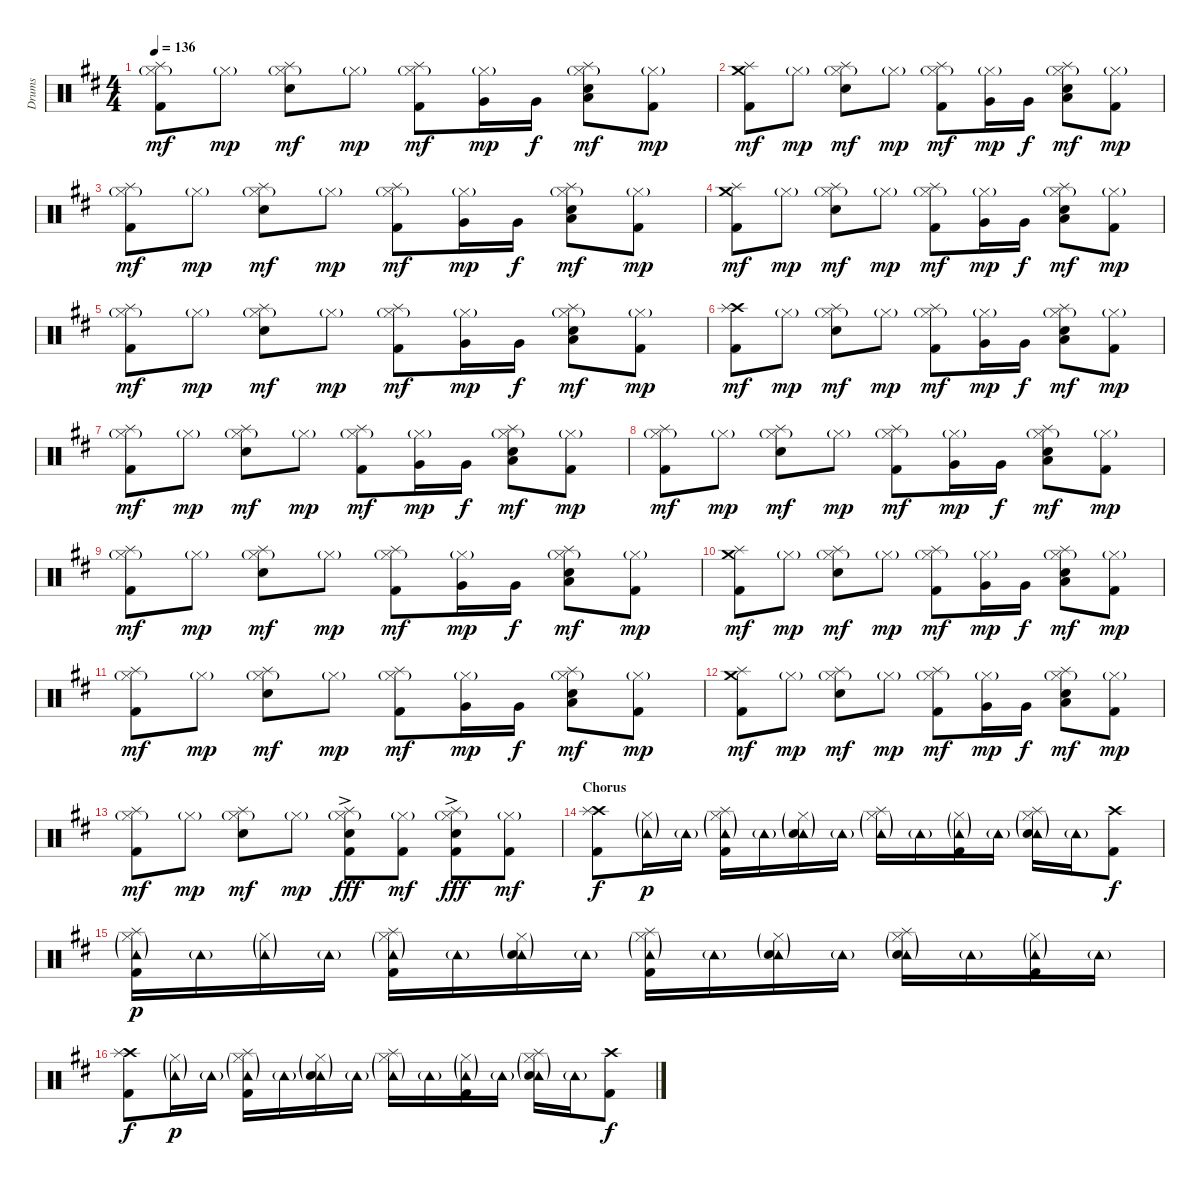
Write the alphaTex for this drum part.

\track ("Drums" "Drums") {instrument percussion}
\staff {score}
\articulation defaults
\ts (4 4)
\tempo 136
\clef neutral
\ks d
("Hi-Hat (closed)"{g} "Splash (hit)" "Kick (hit) 2").8{dy mf} "Hi-Hat (closed)"{g}.8{dy mp} ("Hi-Hat (closed)"{g} "Splash (hit)" "Snare (hit) 2").8{dy mf} "Hi-Hat (closed)"{g}.8{dy mp} ("Hi-Hat (closed)"{g} "Splash (hit)" "Kick (hit) 2").8{dy mf} ("Hi-Hat (closed)"{g} "Very Low Tom (hit)").16{dy mp} "Very Low Tom (hit)".16{dy f} ("Hi-Hat (closed)"{g} "Splash (hit)" "Low Floor Tom (hit)" "Snare (hit) 2").8{dy mf} ("Hi-Hat (closed)"{g} "Kick (hit) 2").8{dy mp} |
("Crash medium (hit)" "Splash (hit)" "Kick (hit) 2").8{dy mf} "Hi-Hat (closed)"{g}.8{dy mp} ("Hi-Hat (closed)"{g} "Splash (hit)" "Snare (hit) 2").8{dy mf} "Hi-Hat (closed)"{g}.8{dy mp} ("Hi-Hat (closed)"{g} "Splash (hit)" "Kick (hit) 2").8{dy mf} ("Hi-Hat (closed)"{g} "Very Low Tom (hit)").16{dy mp} "Very Low Tom (hit)".16{dy f} ("Hi-Hat (closed)"{g} "Splash (hit)" "Low Floor Tom (hit)" "Snare (hit) 2").8{dy mf} ("Hi-Hat (closed)"{g} "Kick (hit) 2").8{dy mp} |
("Hi-Hat (closed)"{g} "Splash (hit)" "Kick (hit) 2").8{dy mf} "Hi-Hat (closed)"{g}.8{dy mp} ("Hi-Hat (closed)"{g} "Splash (hit)" "Snare (hit) 2").8{dy mf} "Hi-Hat (closed)"{g}.8{dy mp} ("Hi-Hat (closed)"{g} "Splash (hit)" "Kick (hit) 2").8{dy mf} ("Hi-Hat (closed)"{g} "Very Low Tom (hit)").16{dy mp} "Very Low Tom (hit)".16{dy f} ("Hi-Hat (closed)"{g} "Splash (hit)" "Low Floor Tom (hit)" "Snare (hit) 2").8{dy mf} ("Hi-Hat (closed)"{g} "Kick (hit) 2").8{dy mp} |
("Crash medium (hit)" "Splash (hit)" "Kick (hit) 2").8{dy mf} "Hi-Hat (closed)"{g}.8{dy mp} ("Hi-Hat (closed)"{g} "Splash (hit)" "Snare (hit) 2").8{dy mf} "Hi-Hat (closed)"{g}.8{dy mp} ("Hi-Hat (closed)"{g} "Splash (hit)" "Kick (hit) 2").8{dy mf} ("Hi-Hat (closed)"{g} "Very Low Tom (hit)").16{dy mp} "Very Low Tom (hit)".16{dy f} ("Hi-Hat (closed)"{g} "Splash (hit)" "Low Floor Tom (hit)" "Snare (hit) 2").8{dy mf} ("Hi-Hat (closed)"{g} "Kick (hit) 2").8{dy mp} |
("Hi-Hat (closed)"{g} "Splash (hit)" "Kick (hit) 2").8{dy mf} "Hi-Hat (closed)"{g}.8{dy mp} ("Hi-Hat (closed)"{g} "Splash (hit)" "Snare (hit) 2").8{dy mf} "Hi-Hat (closed)"{g}.8{dy mp} ("Hi-Hat (closed)"{g} "Splash (hit)" "Kick (hit) 2").8{dy mf} ("Hi-Hat (closed)"{g} "Very Low Tom (hit)").16{dy mp} "Very Low Tom (hit)".16{dy f} ("Hi-Hat (closed)"{g} "Splash (hit)" "Low Floor Tom (hit)" "Snare (hit) 2").8{dy mf} ("Hi-Hat (closed)"{g} "Kick (hit) 2").8{dy mp} |
("Crash high (hit)" "Splash (hit)" "Kick (hit) 2").8{dy mf} "Hi-Hat (closed)"{g}.8{dy mp} ("Hi-Hat (closed)"{g} "Splash (hit)" "Snare (hit) 2").8{dy mf} "Hi-Hat (closed)"{g}.8{dy mp} ("Hi-Hat (closed)"{g} "Splash (hit)" "Kick (hit) 2").8{dy mf} ("Hi-Hat (closed)"{g} "Very Low Tom (hit)").16{dy mp} "Very Low Tom (hit)".16{dy f} ("Hi-Hat (closed)"{g} "Splash (hit)" "Low Floor Tom (hit)" "Snare (hit) 2").8{dy mf} ("Hi-Hat (closed)"{g} "Kick (hit) 2").8{dy mp} |
("Hi-Hat (closed)"{g} "Splash (hit)" "Kick (hit) 2").8{dy mf} "Hi-Hat (closed)"{g}.8{dy mp} ("Hi-Hat (closed)"{g} "Splash (hit)" "Snare (hit) 2").8{dy mf} "Hi-Hat (closed)"{g}.8{dy mp} ("Hi-Hat (closed)"{g} "Splash (hit)" "Kick (hit) 2").8{dy mf} ("Hi-Hat (closed)"{g} "Very Low Tom (hit)").16{dy mp} "Very Low Tom (hit)".16{dy f} ("Hi-Hat (closed)"{g} "Splash (hit)" "Low Floor Tom (hit)" "Snare (hit) 2").8{dy mf} ("Hi-Hat (closed)"{g} "Kick (hit) 2").8{dy mp} |
("Hi-Hat (closed)"{g} "Splash (hit)" "Kick (hit) 2").8{dy mf} "Hi-Hat (closed)"{g}.8{dy mp} ("Hi-Hat (closed)"{g} "Splash (hit)" "Snare (hit) 2").8{dy mf} "Hi-Hat (closed)"{g}.8{dy mp} ("Hi-Hat (closed)"{g} "Splash (hit)" "Kick (hit) 2").8{dy mf} ("Hi-Hat (closed)"{g} "Very Low Tom (hit)").16{dy mp} "Very Low Tom (hit)".16{dy f} ("Hi-Hat (closed)"{g} "Splash (hit)" "Low Floor Tom (hit)" "Snare (hit) 2").8{dy mf} ("Hi-Hat (closed)"{g} "Kick (hit) 2").8{dy mp} |
("Hi-Hat (closed)"{g} "Splash (hit)" "Kick (hit) 2").8{dy mf} "Hi-Hat (closed)"{g}.8{dy mp} ("Hi-Hat (closed)"{g} "Splash (hit)" "Snare (hit) 2").8{dy mf} "Hi-Hat (closed)"{g}.8{dy mp} ("Hi-Hat (closed)"{g} "Splash (hit)" "Kick (hit) 2").8{dy mf} ("Hi-Hat (closed)"{g} "Very Low Tom (hit)").16{dy mp} "Very Low Tom (hit)".16{dy f} ("Hi-Hat (closed)"{g} "Splash (hit)" "Low Floor Tom (hit)" "Snare (hit) 2").8{dy mf} ("Hi-Hat (closed)"{g} "Kick (hit) 2").8{dy mp} |
("Crash medium (hit)" "Splash (hit)" "Kick (hit) 2").8{dy mf} "Hi-Hat (closed)"{g}.8{dy mp} ("Hi-Hat (closed)"{g} "Splash (hit)" "Snare (hit) 2").8{dy mf} "Hi-Hat (closed)"{g}.8{dy mp} ("Hi-Hat (closed)"{g} "Splash (hit)" "Kick (hit) 2").8{dy mf} ("Hi-Hat (closed)"{g} "Very Low Tom (hit)").16{dy mp} "Very Low Tom (hit)".16{dy f} ("Hi-Hat (closed)"{g} "Splash (hit)" "Low Floor Tom (hit)" "Snare (hit) 2").8{dy mf} ("Hi-Hat (closed)"{g} "Kick (hit) 2").8{dy mp} |
("Hi-Hat (closed)"{g} "Splash (hit)" "Kick (hit) 2").8{dy mf} "Hi-Hat (closed)"{g}.8{dy mp} ("Hi-Hat (closed)"{g} "Splash (hit)" "Snare (hit) 2").8{dy mf} "Hi-Hat (closed)"{g}.8{dy mp} ("Hi-Hat (closed)"{g} "Splash (hit)" "Kick (hit) 2").8{dy mf} ("Hi-Hat (closed)"{g} "Very Low Tom (hit)").16{dy mp} "Very Low Tom (hit)".16{dy f} ("Hi-Hat (closed)"{g} "Splash (hit)" "Low Floor Tom (hit)" "Snare (hit) 2").8{dy mf} ("Hi-Hat (closed)"{g} "Kick (hit) 2").8{dy mp} |
("Crash medium (hit)" "Splash (hit)" "Kick (hit) 2").8{dy mf} "Hi-Hat (closed)"{g}.8{dy mp} ("Hi-Hat (closed)"{g} "Splash (hit)" "Snare (hit) 2").8{dy mf} "Hi-Hat (closed)"{g}.8{dy mp} ("Hi-Hat (closed)"{g} "Splash (hit)" "Kick (hit) 2").8{dy mf} ("Hi-Hat (closed)"{g} "Very Low Tom (hit)").16{dy mp} "Very Low Tom (hit)".16{dy f} ("Hi-Hat (closed)"{g} "Splash (hit)" "Low Floor Tom (hit)" "Snare (hit) 2").8{dy mf} ("Hi-Hat (closed)"{g} "Kick (hit) 2").8{dy mp} |
("Hi-Hat (closed)"{g} "Splash (hit)" "Kick (hit) 2").8{dy mf} "Hi-Hat (closed)"{g}.8{dy mp} ("Hi-Hat (closed)"{g} "Splash (hit)" "Snare (hit) 2").8{dy mf} "Hi-Hat (closed)"{g}.8{dy mp} ("Hi-Hat (closed)"{g} "Splash (hit)" "Snare (hit) 2"{ac} "Kick (hit) 2").8{dy fff} ("Hi-Hat (closed)"{g} "Kick (hit) 2").8{dy mf} ("Hi-Hat (closed)"{g} "Splash (hit)" "Snare (hit) 2"{ac} "Kick (hit) 2").8{dy fff} ("Hi-Hat (closed)"{g} "Kick (hit) 2").8{dy mf} |
\section ("" "Chorus")
("Crash high (hit)" "Splash (hit)" "Kick (hit) 2").8{dy f} ("Hi-Hat (closed)"{g} "Tambourine (hit)"{g}).16{dy p} "Tambourine (hit)"{g}.16 ("Hi-Hat (closed)"{g} "Splash (hit)" "Tambourine (hit)"{g} "Kick (hit) 2").16 "Tambourine (hit)"{g}.16 ("Hi-Hat (closed)"{g} "Tambourine (hit)"{g} "Snare (hit) 2").16 "Tambourine (hit)"{g}.16 ("Hi-Hat (closed)"{g} "Splash (hit)" "Tambourine (hit)"{g}).16 "Tambourine (hit)"{g}.16 ("Hi-Hat (closed)"{g} "Tambourine (hit)"{g} "Kick (hit) 2").16 "Tambourine (hit)"{g}.16 ("Hi-Hat (closed)"{g} "Splash (hit)" "Tambourine (hit)"{g} "Snare (hit) 2").16 "Tambourine (hit)"{g}.16 ("Crash high (hit)" "Kick (hit) 2").8{dy f} |
("Hi-Hat (closed)"{g} "Splash (hit)" "Tambourine (hit)"{g} "Kick (hit) 2").16{dy p} "Tambourine (hit)"{g}.16 ("Hi-Hat (closed)"{g} "Tambourine (hit)"{g}).16 "Tambourine (hit)"{g}.16 ("Hi-Hat (closed)"{g} "Splash (hit)" "Tambourine (hit)"{g} "Kick (hit) 2").16 "Tambourine (hit)"{g}.16 ("Hi-Hat (closed)"{g} "Tambourine (hit)"{g} "Snare (hit) 2").16 "Tambourine (hit)"{g}.16 ("Hi-Hat (closed)"{g} "Splash (hit)" "Tambourine (hit)"{g} "Kick (hit) 2").16 "Tambourine (hit)"{g}.16 ("Hi-Hat (closed)"{g} "Tambourine (hit)"{g} "Snare (hit) 2").16 "Tambourine (hit)"{g}.16 ("Hi-Hat (closed)"{g} "Splash (hit)" "Tambourine (hit)"{g} "Snare (hit) 2").16 "Tambourine (hit)"{g}.16 ("Hi-Hat (closed)"{g} "Tambourine (hit)"{g} "Kick (hit) 2").16 "Tambourine (hit)"{g}.16 |
("Crash high (hit)" "Splash (hit)" "Kick (hit) 2").8{dy f} ("Hi-Hat (closed)"{g} "Tambourine (hit)"{g}).16{dy p} "Tambourine (hit)"{g}.16 ("Hi-Hat (closed)"{g} "Splash (hit)" "Tambourine (hit)"{g} "Kick (hit) 2").16 "Tambourine (hit)"{g}.16 ("Hi-Hat (closed)"{g} "Tambourine (hit)"{g} "Snare (hit) 2").16 "Tambourine (hit)"{g}.16 ("Hi-Hat (closed)"{g} "Splash (hit)" "Tambourine (hit)"{g}).16 "Tambourine (hit)"{g}.16 ("Hi-Hat (closed)"{g} "Tambourine (hit)"{g} "Kick (hit) 2").16 "Tambourine (hit)"{g}.16 ("Hi-Hat (closed)"{g} "Splash (hit)" "Tambourine (hit)"{g} "Snare (hit) 2").16 "Tambourine (hit)"{g}.16 ("Crash high (hit)" "Kick (hit) 2").8{dy f}
